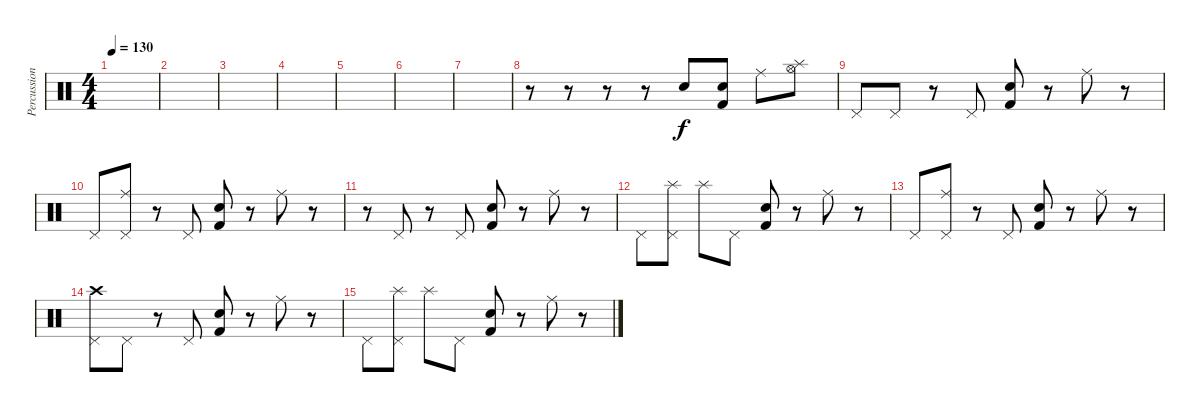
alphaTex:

\track ("Percussions" "Percussion") {instrument percussion}
\staff {score}
\articulation defaults
\ts (4 4)
\tempo 130
\clef neutral
\ks c
|
|
|
|
|
|
|
r.8 r.8 r.8 r.8 "Electric Snare (hit)".8 ("Electric Snare (hit)" "Kick (hit) 2").8 "Ride (middle)".8 ("Splash (hit)" "Hi-Hat (open)").8 |
"Pedal Hi-Hat (hit)".8 "Pedal Hi-Hat (hit)".8 r.8 "Pedal Hi-Hat (hit)".8 ("Kick (hit) 2" "Electric Snare (hit)").8 r.8 "Ride (middle)".8 r.8 |
"Pedal Hi-Hat (hit)".8 ("Ride (middle)" "Pedal Hi-Hat (hit)").8 r.8 "Pedal Hi-Hat (hit)".8 ("Kick (hit) 2" "Electric Snare (hit)").8 r.8 "Ride (middle)".8 r.8 |
r.8 "Pedal Hi-Hat (hit)".8 r.8 "Pedal Hi-Hat (hit)".8 ("Kick (hit) 2" "Electric Snare (hit)").8 r.8 "Ride (middle)".8 r.8 |
"Pedal Hi-Hat (hit)".8 ("Splash (hit)" "Pedal Hi-Hat (hit)").8 "Splash (hit)".8 "Pedal Hi-Hat (hit)".8 ("Kick (hit) 2" "Electric Snare (hit)").8 r.8 "Ride (middle)".8 r.8 |
"Pedal Hi-Hat (hit)".8 ("Ride (middle)" "Pedal Hi-Hat (hit)").8 r.8 "Pedal Hi-Hat (hit)".8 ("Kick (hit) 2" "Electric Snare (hit)").8 r.8 "Ride (middle)".8 r.8 |
("Crash high (hit)" "Pedal Hi-Hat (hit)").8 "Pedal Hi-Hat (hit)".8 r.8 "Pedal Hi-Hat (hit)".8 ("Kick (hit) 2" "Electric Snare (hit)").8 r.8 "Ride (middle)".8 r.8 |
"Pedal Hi-Hat (hit)".8 ("Splash (hit)" "Pedal Hi-Hat (hit)").8 "Splash (hit)".8 "Pedal Hi-Hat (hit)".8 ("Kick (hit) 2" "Electric Snare (hit)").8 r.8 "Ride (middle)".8 r.8
